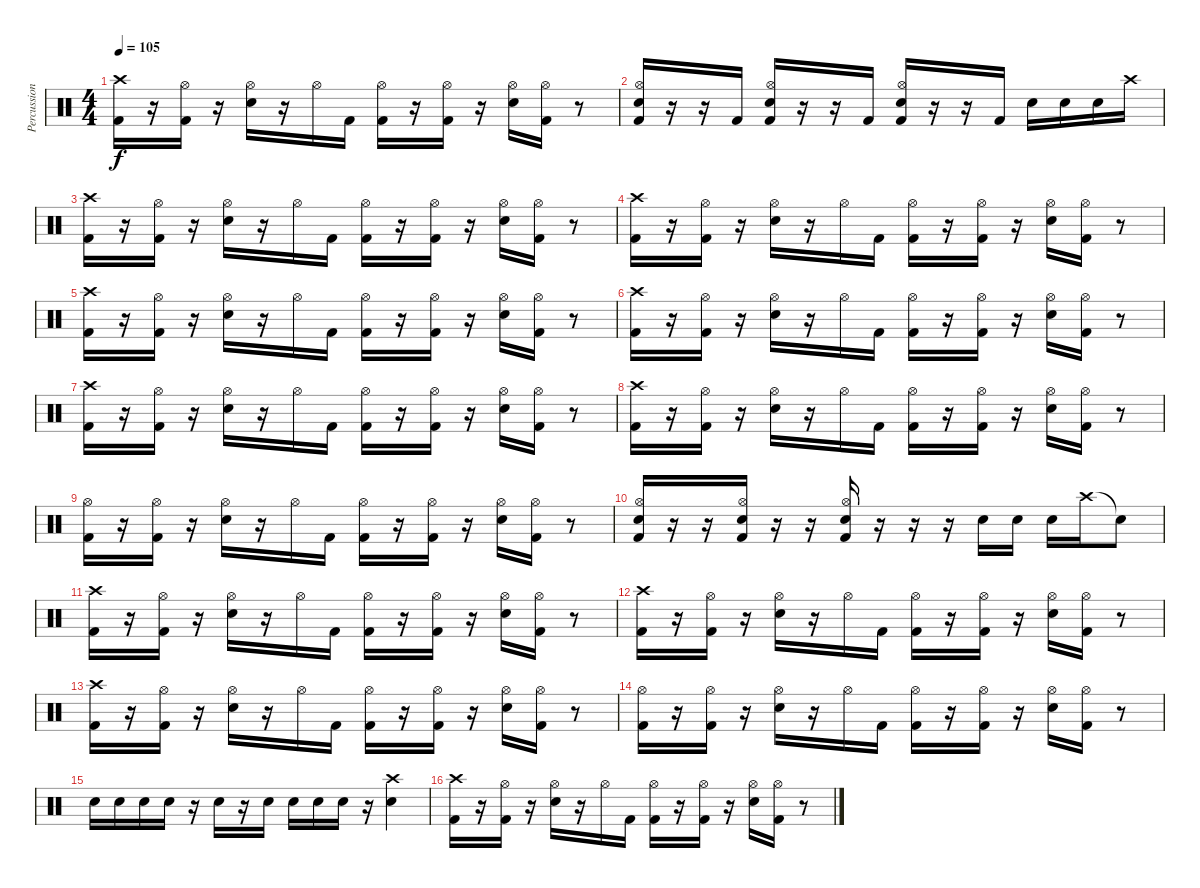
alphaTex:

\track ("Percussions" "Percussion") {instrument percussion}
\staff {score}
\articulation defaults
\ts (4 4)
\tempo 105
\clef neutral
\ks c
("Crash high (hit)" "Kick (hit) 2").16{dy f} r.16 ("Hi-Hat (open)" "Kick (hit) 2").16 r.16 ("Hi-Hat (open)" "Snare (hit) 2").16 r.16 "Hi-Hat (open)".16 "Kick (hit) 2".16 ("Kick (hit) 2" "Hi-Hat (open)").16 r.16 ("Kick (hit) 2" "Hi-Hat (open)").16 r.16 ("Hi-Hat (open)" "Snare (hit) 2").16 ("Kick (hit) 2" "Hi-Hat (open)").16 r.8 |
("Kick (hit) 2" "Snare (hit) 2" "Hi-Hat (open)").16 r.16 r.16 "Kick (hit) 2".16 ("Kick (hit) 2" "Snare (hit) 2" "Hi-Hat (open)").16 r.16 r.16 "Kick (hit) 2".16 ("Kick (hit) 2" "Snare (hit) 2" "Hi-Hat (open)").16 r.16 r.16 "Kick (hit) 2".16 "Snare (hit) 2".16 "Snare (hit) 2".16 "Snare (hit) 2".16 "Crash high (hit)".16 |
("Crash high (hit)" "Kick (hit) 2").16 r.16 ("Hi-Hat (open)" "Kick (hit) 2").16 r.16 ("Hi-Hat (open)" "Snare (hit) 2").16 r.16 "Hi-Hat (open)".16 "Kick (hit) 2".16 ("Kick (hit) 2" "Hi-Hat (open)").16 r.16 ("Kick (hit) 2" "Hi-Hat (open)").16 r.16 ("Hi-Hat (open)" "Snare (hit) 2").16 ("Kick (hit) 2" "Hi-Hat (open)").16 r.8 |
("Crash high (hit)" "Kick (hit) 2").16 r.16 ("Hi-Hat (open)" "Kick (hit) 2").16 r.16 ("Hi-Hat (open)" "Snare (hit) 2").16 r.16 "Hi-Hat (open)".16 "Kick (hit) 2".16 ("Kick (hit) 2" "Hi-Hat (open)").16 r.16 ("Kick (hit) 2" "Hi-Hat (open)").16 r.16 ("Hi-Hat (open)" "Snare (hit) 2").16 ("Kick (hit) 2" "Hi-Hat (open)").16 r.8 |
("Crash high (hit)" "Kick (hit) 2").16 r.16 ("Hi-Hat (open)" "Kick (hit) 2").16 r.16 ("Hi-Hat (open)" "Snare (hit) 2").16 r.16 "Hi-Hat (open)".16 "Kick (hit) 2".16 ("Kick (hit) 2" "Hi-Hat (open)").16 r.16 ("Kick (hit) 2" "Hi-Hat (open)").16 r.16 ("Hi-Hat (open)" "Snare (hit) 2").16 ("Kick (hit) 2" "Hi-Hat (open)").16 r.8 |
("Crash high (hit)" "Kick (hit) 2").16 r.16 ("Hi-Hat (open)" "Kick (hit) 2").16 r.16 ("Hi-Hat (open)" "Snare (hit) 2").16 r.16 "Hi-Hat (open)".16 "Kick (hit) 2".16 ("Kick (hit) 2" "Hi-Hat (open)").16 r.16 ("Kick (hit) 2" "Hi-Hat (open)").16 r.16 ("Hi-Hat (open)" "Snare (hit) 2").16 ("Kick (hit) 2" "Hi-Hat (open)").16 r.8 |
("Crash high (hit)" "Kick (hit) 2").16 r.16 ("Hi-Hat (open)" "Kick (hit) 2").16 r.16 ("Hi-Hat (open)" "Snare (hit) 2").16 r.16 "Hi-Hat (open)".16 "Kick (hit) 2".16 ("Kick (hit) 2" "Hi-Hat (open)").16 r.16 ("Kick (hit) 2" "Hi-Hat (open)").16 r.16 ("Hi-Hat (open)" "Snare (hit) 2").16 ("Kick (hit) 2" "Hi-Hat (open)").16 r.8 |
("Crash high (hit)" "Kick (hit) 2").16 r.16 ("Hi-Hat (open)" "Kick (hit) 2").16 r.16 ("Hi-Hat (open)" "Snare (hit) 2").16 r.16 "Hi-Hat (open)".16 "Kick (hit) 2".16 ("Kick (hit) 2" "Hi-Hat (open)").16 r.16 ("Kick (hit) 2" "Hi-Hat (open)").16 r.16 ("Hi-Hat (open)" "Snare (hit) 2").16 ("Kick (hit) 2" "Hi-Hat (open)").16 r.8 |
("Hi-Hat (open)" "Kick (hit) 2").16 r.16 ("Hi-Hat (open)" "Kick (hit) 2").16 r.16 ("Hi-Hat (open)" "Snare (hit) 2").16 r.16 "Hi-Hat (open)".16 "Kick (hit) 2".16 ("Kick (hit) 2" "Hi-Hat (open)").16 r.16 ("Kick (hit) 2" "Hi-Hat (open)").16 r.16 ("Hi-Hat (open)" "Snare (hit) 2").16 ("Kick (hit) 2" "Hi-Hat (open)").16 r.8 |
("Kick (hit) 2" "Snare (hit) 2" "Hi-Hat (open)").16 r.16 r.16 ("Kick (hit) 2" "Snare (hit) 2" "Hi-Hat (open)").16 r.16 r.16 ("Kick (hit) 2" "Snare (hit) 2" "Hi-Hat (open)").16 r.16 r.16 r.16 "Snare (hit) 2".16 "Snare (hit) 2".16 "Snare (hit) 2".16 "Crash high (hit)".16 "Snare (hit)"{t}.8 |
("Crash high (hit)" "Kick (hit) 2").16 r.16 ("Hi-Hat (open)" "Kick (hit) 2").16 r.16 ("Hi-Hat (open)" "Snare (hit) 2").16 r.16 "Hi-Hat (open)".16 "Kick (hit) 2".16 ("Kick (hit) 2" "Hi-Hat (open)").16 r.16 ("Kick (hit) 2" "Hi-Hat (open)").16 r.16 ("Hi-Hat (open)" "Snare (hit) 2").16 ("Kick (hit) 2" "Hi-Hat (open)").16 r.8 |
("Crash high (hit)" "Kick (hit) 2").16 r.16 ("Hi-Hat (open)" "Kick (hit) 2").16 r.16 ("Hi-Hat (open)" "Snare (hit) 2").16 r.16 "Hi-Hat (open)".16 "Kick (hit) 2".16 ("Kick (hit) 2" "Hi-Hat (open)").16 r.16 ("Kick (hit) 2" "Hi-Hat (open)").16 r.16 ("Hi-Hat (open)" "Snare (hit) 2").16 ("Kick (hit) 2" "Hi-Hat (open)").16 r.8 |
("Crash high (hit)" "Kick (hit) 2").16 r.16 ("Hi-Hat (open)" "Kick (hit) 2").16 r.16 ("Hi-Hat (open)" "Snare (hit) 2").16 r.16 "Hi-Hat (open)".16 "Kick (hit) 2".16 ("Kick (hit) 2" "Hi-Hat (open)").16 r.16 ("Kick (hit) 2" "Hi-Hat (open)").16 r.16 ("Hi-Hat (open)" "Snare (hit) 2").16 ("Kick (hit) 2" "Hi-Hat (open)").16 r.8 |
("Hi-Hat (open)" "Kick (hit) 2").16 r.16 ("Hi-Hat (open)" "Kick (hit) 2").16 r.16 ("Hi-Hat (open)" "Snare (hit) 2").16 r.16 "Hi-Hat (open)".16 "Kick (hit) 2".16 ("Kick (hit) 2" "Hi-Hat (open)").16 r.16 ("Kick (hit) 2" "Hi-Hat (open)").16 r.16 ("Hi-Hat (open)" "Snare (hit) 2").16 ("Kick (hit) 2" "Hi-Hat (open)").16 r.8 |
"Snare (hit) 2".16 "Snare (hit) 2".16 "Snare (hit) 2".16 "Snare (hit) 2".16 r.16 "Snare (hit) 2".16 r.16 "Snare (hit) 2".16 "Snare (hit) 2".16 "Snare (hit) 2".16 "Snare (hit) 2".16 r.16 ("Snare (hit) 2" "Crash high (hit)").4 |
("Crash high (hit)" "Kick (hit) 2").16 r.16 ("Hi-Hat (open)" "Kick (hit) 2").16 r.16 ("Hi-Hat (open)" "Snare (hit) 2").16 r.16 "Hi-Hat (open)".16 "Kick (hit) 2".16 ("Kick (hit) 2" "Hi-Hat (open)").16 r.16 ("Kick (hit) 2" "Hi-Hat (open)").16 r.16 ("Hi-Hat (open)" "Snare (hit) 2").16 ("Kick (hit) 2" "Hi-Hat (open)").16 r.8
